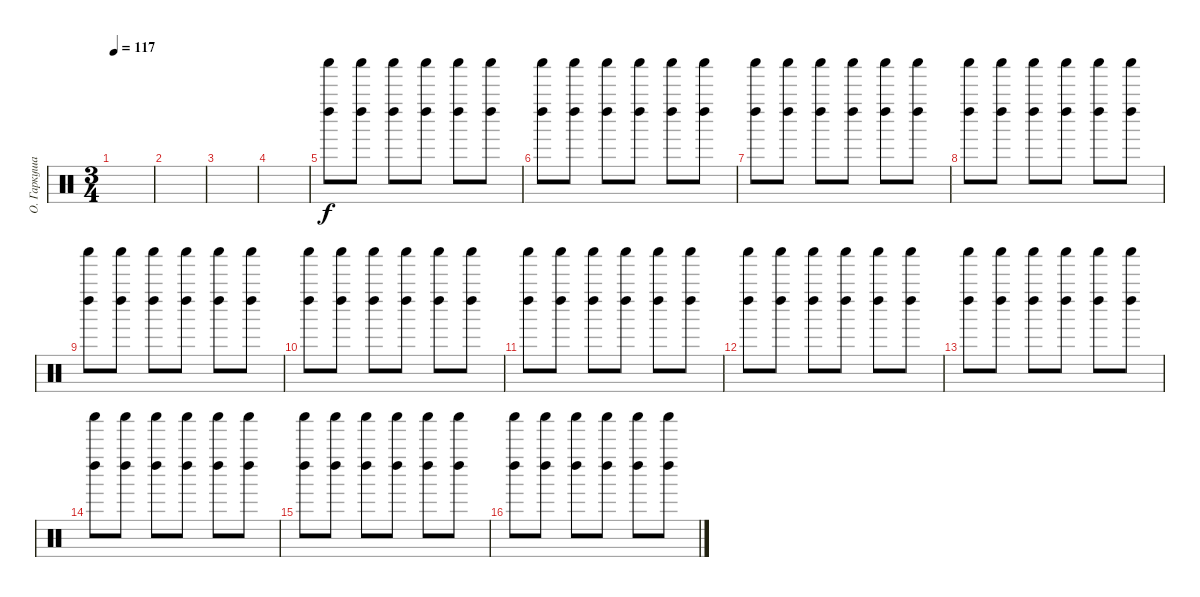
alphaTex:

\track ("О. Гаркуша" "О. Гаркуша") {instrument percussion}
\staff {score}
\articulation defaults
\ts (3 4)
\tempo 117
\clef neutral
\ks c
|
|
|
|
("Left Maraca (hit)" "Shaker (hit)").8 ("Left Maraca (hit)" "Shaker (hit)").8 ("Left Maraca (hit)" "Shaker (hit)").8 ("Left Maraca (hit)" "Shaker (hit)").8 ("Left Maraca (hit)" "Shaker (hit)").8 ("Left Maraca (hit)" "Shaker (hit)").8 |
("Left Maraca (hit)" "Shaker (hit)").8 ("Left Maraca (hit)" "Shaker (hit)").8 ("Left Maraca (hit)" "Shaker (hit)").8 ("Left Maraca (hit)" "Shaker (hit)").8 ("Left Maraca (hit)" "Shaker (hit)").8 ("Left Maraca (hit)" "Shaker (hit)").8 |
("Left Maraca (hit)" "Shaker (hit)").8 ("Left Maraca (hit)" "Shaker (hit)").8 ("Left Maraca (hit)" "Shaker (hit)").8 ("Left Maraca (hit)" "Shaker (hit)").8 ("Left Maraca (hit)" "Shaker (hit)").8 ("Left Maraca (hit)" "Shaker (hit)").8 |
("Left Maraca (hit)" "Shaker (hit)").8 ("Left Maraca (hit)" "Shaker (hit)").8 ("Left Maraca (hit)" "Shaker (hit)").8 ("Left Maraca (hit)" "Shaker (hit)").8 ("Left Maraca (hit)" "Shaker (hit)").8 ("Left Maraca (hit)" "Shaker (hit)").8 |
("Left Maraca (hit)" "Shaker (hit)").8 ("Left Maraca (hit)" "Shaker (hit)").8 ("Left Maraca (hit)" "Shaker (hit)").8 ("Left Maraca (hit)" "Shaker (hit)").8 ("Left Maraca (hit)" "Shaker (hit)").8 ("Left Maraca (hit)" "Shaker (hit)").8 |
("Left Maraca (hit)" "Shaker (hit)").8 ("Left Maraca (hit)" "Shaker (hit)").8 ("Left Maraca (hit)" "Shaker (hit)").8 ("Left Maraca (hit)" "Shaker (hit)").8 ("Left Maraca (hit)" "Shaker (hit)").8 ("Left Maraca (hit)" "Shaker (hit)").8 |
("Left Maraca (hit)" "Shaker (hit)").8 ("Left Maraca (hit)" "Shaker (hit)").8 ("Left Maraca (hit)" "Shaker (hit)").8 ("Left Maraca (hit)" "Shaker (hit)").8 ("Left Maraca (hit)" "Shaker (hit)").8 ("Left Maraca (hit)" "Shaker (hit)").8 |
("Left Maraca (hit)" "Shaker (hit)").8 ("Left Maraca (hit)" "Shaker (hit)").8 ("Left Maraca (hit)" "Shaker (hit)").8 ("Left Maraca (hit)" "Shaker (hit)").8 ("Left Maraca (hit)" "Shaker (hit)").8 ("Left Maraca (hit)" "Shaker (hit)").8 |
("Left Maraca (hit)" "Shaker (hit)").8 ("Left Maraca (hit)" "Shaker (hit)").8 ("Left Maraca (hit)" "Shaker (hit)").8 ("Left Maraca (hit)" "Shaker (hit)").8 ("Left Maraca (hit)" "Shaker (hit)").8 ("Left Maraca (hit)" "Shaker (hit)").8 |
("Left Maraca (hit)" "Shaker (hit)").8 ("Left Maraca (hit)" "Shaker (hit)").8 ("Left Maraca (hit)" "Shaker (hit)").8 ("Left Maraca (hit)" "Shaker (hit)").8 ("Left Maraca (hit)" "Shaker (hit)").8 ("Left Maraca (hit)" "Shaker (hit)").8 |
("Left Maraca (hit)" "Shaker (hit)").8 ("Left Maraca (hit)" "Shaker (hit)").8 ("Left Maraca (hit)" "Shaker (hit)").8 ("Left Maraca (hit)" "Shaker (hit)").8 ("Left Maraca (hit)" "Shaker (hit)").8 ("Left Maraca (hit)" "Shaker (hit)").8 |
("Left Maraca (hit)" "Shaker (hit)").8 ("Left Maraca (hit)" "Shaker (hit)").8 ("Left Maraca (hit)" "Shaker (hit)").8 ("Left Maraca (hit)" "Shaker (hit)").8 ("Left Maraca (hit)" "Shaker (hit)").8 ("Left Maraca (hit)" "Shaker (hit)").8
